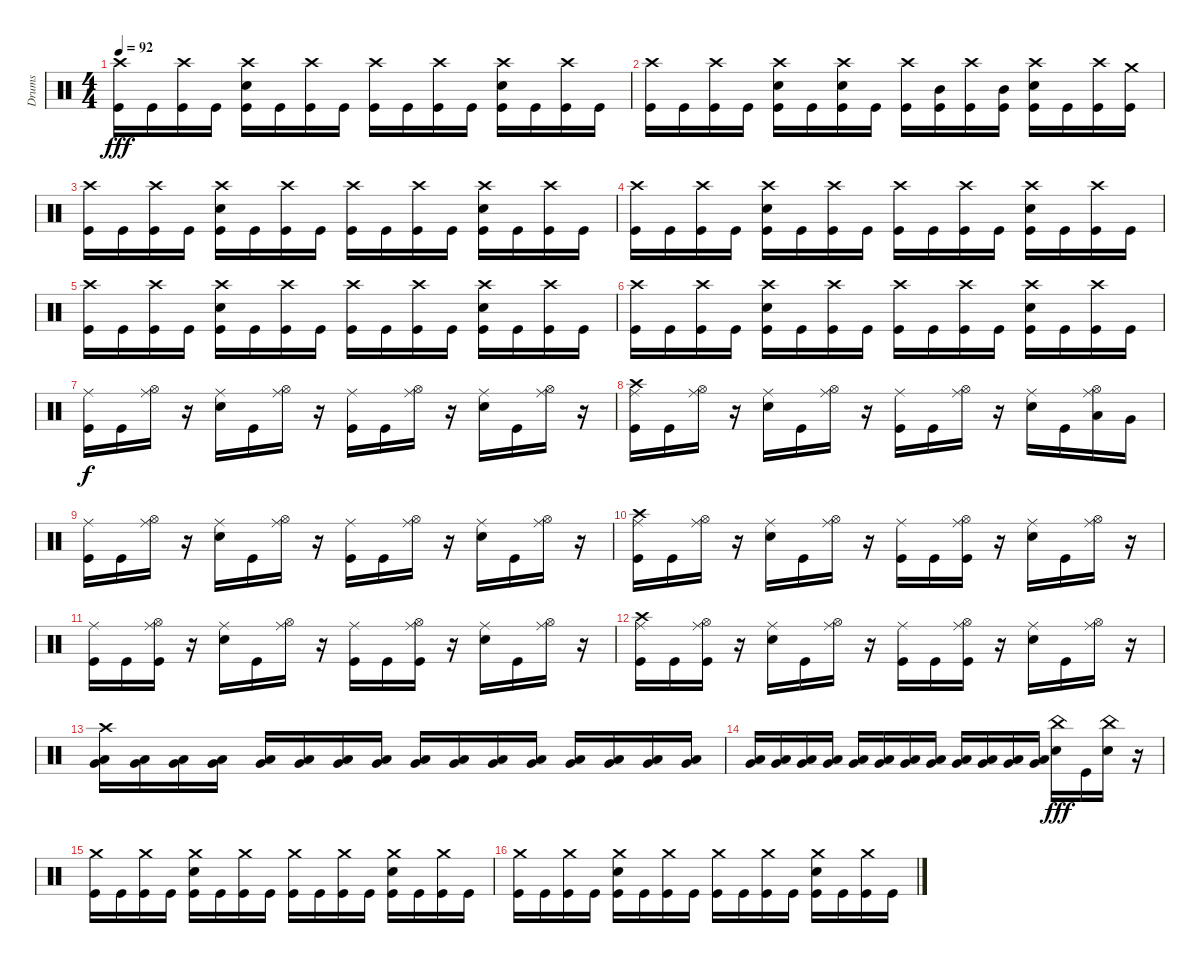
\track ("Drums" "Drums") {instrument percussion}
\staff {score}
\articulation defaults
\ts (4 4)
\tempo 92
\clef neutral
\ks c
("Crash high (hit)" "Kick (hit)").16{dy fff} "Kick (hit)".16 ("Crash high (hit)" "Kick (hit)").16 "Kick (hit)".16 ("Crash high (hit)" "Snare (hit) 2" "Kick (hit)").16 "Kick (hit)".16 ("Crash high (hit)" "Kick (hit)").16 "Kick (hit)".16 ("Crash high (hit)" "Kick (hit)").16 "Kick (hit)".16 ("Crash high (hit)" "Kick (hit)").16 "Kick (hit)".16 ("Crash high (hit)" "Snare (hit) 2" "Kick (hit)").16 "Kick (hit)".16 ("Crash high (hit)" "Kick (hit)").16 "Kick (hit)".16 |
("Crash high (hit)" "Kick (hit)").16 "Kick (hit)".16 ("Crash high (hit)" "Kick (hit)").16 "Kick (hit)".16 ("Crash high (hit)" "Snare (hit) 2" "Kick (hit)").16 "Kick (hit)".16 ("Crash high (hit)" "Snare (hit) 2" "Kick (hit)").16 "Kick (hit)".16 ("Crash high (hit)" "Kick (hit)").16 ("Mid Tom (hit)" "Kick (hit)").16 ("Crash high (hit)" "Kick (hit)").16 ("Mid Tom (hit)" "Kick (hit)").16 ("Crash high (hit)" "Snare (hit) 2" "Kick (hit)").16 "Kick (hit)".16 ("Crash high (hit)" "Kick (hit)").16 ("Crash medium (hit)" "Kick (hit)").16 |
("Crash high (hit)" "Kick (hit)").16 "Kick (hit)".16 ("Crash high (hit)" "Kick (hit)").16 "Kick (hit)".16 ("Crash high (hit)" "Snare (hit) 2" "Kick (hit)").16 "Kick (hit)".16 ("Crash high (hit)" "Kick (hit)").16 "Kick (hit)".16 ("Crash high (hit)" "Kick (hit)").16 "Kick (hit)".16 ("Crash high (hit)" "Kick (hit)").16 "Kick (hit)".16 ("Crash high (hit)" "Snare (hit) 2" "Kick (hit)").16 "Kick (hit)".16 ("Crash high (hit)" "Kick (hit)").16 "Kick (hit)".16 |
("Crash high (hit)" "Kick (hit)").16 "Kick (hit)".16 ("Crash high (hit)" "Kick (hit)").16 "Kick (hit)".16 ("Crash high (hit)" "Snare (hit) 2" "Kick (hit)").16 "Kick (hit)".16 ("Crash high (hit)" "Kick (hit)").16 "Kick (hit)".16 ("Crash high (hit)" "Kick (hit)").16 "Kick (hit)".16 ("Crash high (hit)" "Kick (hit)").16 "Kick (hit)".16 ("Crash high (hit)" "Snare (hit) 2" "Kick (hit)").16 "Kick (hit)".16 ("Crash high (hit)" "Kick (hit)").16 "Kick (hit)".16 |
("Crash high (hit)" "Kick (hit)").16 "Kick (hit)".16 ("Crash high (hit)" "Kick (hit)").16 "Kick (hit)".16 ("Crash high (hit)" "Snare (hit) 2" "Kick (hit)").16 "Kick (hit)".16 ("Crash high (hit)" "Kick (hit)").16 "Kick (hit)".16 ("Crash high (hit)" "Kick (hit)").16 "Kick (hit)".16 ("Crash high (hit)" "Kick (hit)").16 "Kick (hit)".16 ("Crash high (hit)" "Snare (hit) 2" "Kick (hit)").16 "Kick (hit)".16 ("Crash high (hit)" "Kick (hit)").16 "Kick (hit)".16 |
("Crash high (hit)" "Kick (hit)").16 "Kick (hit)".16 ("Crash high (hit)" "Kick (hit)").16 "Kick (hit)".16 ("Crash high (hit)" "Snare (hit) 2" "Kick (hit)").16 "Kick (hit)".16 ("Crash high (hit)" "Kick (hit)").16 "Kick (hit)".16 ("Crash high (hit)" "Kick (hit)").16 "Kick (hit)".16 ("Crash high (hit)" "Kick (hit)").16 "Kick (hit)".16 ("Crash high (hit)" "Snare (hit) 2" "Kick (hit)").16 "Kick (hit)".16 ("Crash high (hit)" "Kick (hit)").16 "Kick (hit)".16 |
("Ride (middle)" "Kick (hit)").16{dy f} "Kick (hit)".16 ("Hi-Hat (open)" "Ride (middle)").16 r.16 ("Snare (hit) 2" "Ride (middle)").16 "Kick (hit)".16 ("Hi-Hat (open)" "Ride (middle)").16 r.16 ("Ride (middle)" "Kick (hit)").16 "Kick (hit)".16 ("Hi-Hat (open)" "Ride (middle)").16 r.16 ("Ride (middle)" "Snare (hit) 2").16 "Kick (hit)".16 ("Hi-Hat (open)" "Ride (middle)").16 r.16 |
("Crash high (hit)" "Ride (middle)" "Kick (hit)").16 "Kick (hit)".16 ("Hi-Hat (open)" "Ride (middle)").16 r.16 ("Snare (hit) 2" "Ride (middle)").16 "Kick (hit)".16 ("Hi-Hat (open)" "Ride (middle)").16 r.16 ("Ride (middle)" "Kick (hit)").16 "Kick (hit)".16 ("Hi-Hat (open)" "Ride (middle)").16 r.16 ("Ride (middle)" "Snare (hit) 2").16 "Kick (hit)".16 ("Hi-Hat (open)" "Ride (middle)" "Low Tom (hit)").16 "Very Low Tom (hit)".16 |
("Ride (middle)" "Kick (hit)").16 "Kick (hit)".16 ("Hi-Hat (open)" "Ride (middle)").16 r.16 ("Snare (hit) 2" "Ride (middle)").16 "Kick (hit)".16 ("Hi-Hat (open)" "Ride (middle)").16 r.16 ("Ride (middle)" "Kick (hit)").16 "Kick (hit)".16 ("Hi-Hat (open)" "Ride (middle)").16 r.16 ("Ride (middle)" "Snare (hit) 2").16 "Kick (hit)".16 ("Hi-Hat (open)" "Ride (middle)").16 r.16 |
("Crash high (hit)" "Ride (middle)" "Kick (hit)").16 "Kick (hit)".16 ("Hi-Hat (open)" "Ride (middle)").16 r.16 ("Snare (hit) 2" "Ride (middle)").16 "Kick (hit)".16 ("Hi-Hat (open)" "Ride (middle)").16 r.16 ("Ride (middle)" "Kick (hit)").16 "Kick (hit)".16 ("Hi-Hat (open)" "Ride (middle)" "Kick (hit)").16 r.16 ("Ride (middle)" "Snare (hit) 2").16 "Kick (hit)".16 ("Hi-Hat (open)" "Ride (middle)").16 r.16 |
("Ride (middle)" "Kick (hit)").16 "Kick (hit)".16 ("Hi-Hat (open)" "Ride (middle)" "Kick (hit)").16 r.16 ("Snare (hit) 2" "Ride (middle)").16 "Kick (hit)".16 ("Hi-Hat (open)" "Ride (middle)").16 r.16 ("Ride (middle)" "Kick (hit)").16 "Kick (hit)".16 ("Hi-Hat (open)" "Ride (middle)" "Kick (hit)").16 r.16 ("Ride (middle)" "Snare (hit) 2").16 "Kick (hit)".16 ("Hi-Hat (open)" "Ride (middle)").16 r.16 |
("Crash high (hit)" "Ride (middle)" "Kick (hit)").16 "Kick (hit)".16 ("Hi-Hat (open)" "Ride (middle)" "Kick (hit)").16 r.16 ("Snare (hit) 2" "Ride (middle)").16 "Kick (hit)".16 ("Hi-Hat (open)" "Ride (middle)").16 r.16 ("Ride (middle)" "Kick (hit)").16 "Kick (hit)".16 ("Hi-Hat (open)" "Ride (middle)" "Kick (hit)").16 r.16 ("Ride (middle)" "Snare (hit) 2").16 "Kick (hit)".16 ("Hi-Hat (open)" "Ride (middle)").16 r.16 |
("Crash high (hit)" "Very Low Tom (hit)" "Low Floor Tom (hit)").16 ("Very Low Tom (hit)" "Low Floor Tom (hit)").16 ("Very Low Tom (hit)" "Low Floor Tom (hit)").16 ("Very Low Tom (hit)" "Low Floor Tom (hit)").16 ("Very Low Tom (hit)" "Low Floor Tom (hit)").16 ("Very Low Tom (hit)" "Low Floor Tom (hit)").16 ("Very Low Tom (hit)" "Low Floor Tom (hit)").16 ("Very Low Tom (hit)" "Low Floor Tom (hit)").16 ("Very Low Tom (hit)" "Low Floor Tom (hit)").16 ("Very Low Tom (hit)" "Low Floor Tom (hit)").16 ("Very Low Tom (hit)" "Low Floor Tom (hit)").16 ("Very Low Tom (hit)" "Low Floor Tom (hit)").16 ("Very Low Tom (hit)" "Low Floor Tom (hit)").16 ("Very Low Tom (hit)" "Low Floor Tom (hit)").16 ("Very Low Tom (hit)" "Low Floor Tom (hit)").16 ("Very Low Tom (hit)" "Low Floor Tom (hit)").16 |
("Very Low Tom (hit)" "Low Floor Tom (hit)").16 ("Very Low Tom (hit)" "Low Floor Tom (hit)").16 ("Very Low Tom (hit)" "Low Floor Tom (hit)").16 ("Very Low Tom (hit)" "Low Floor Tom (hit)").16 ("Very Low Tom (hit)" "Low Floor Tom (hit)").16 ("Very Low Tom (hit)" "Low Floor Tom (hit)").16 ("Very Low Tom (hit)" "Low Floor Tom (hit)").16 ("Very Low Tom (hit)" "Low Floor Tom (hit)").16 ("Very Low Tom (hit)" "Low Floor Tom (hit)").16 ("Very Low Tom (hit)" "Low Floor Tom (hit)").16 ("Very Low Tom (hit)" "Low Floor Tom (hit)").16 ("Very Low Tom (hit)" "Low Floor Tom (hit)").16 ("China (hit)" "Snare (hit) 2").16{dy fff} "Kick (hit)".16 ("China (hit)" "Snare (hit) 2").16 r.16 |
("Crash medium (hit)" "Kick (hit)").16 "Kick (hit)".16 ("Crash medium (hit)" "Kick (hit)").16 "Kick (hit)".16 ("Crash medium (hit)" "Snare (hit) 2" "Kick (hit)").16 "Kick (hit)".16 ("Crash medium (hit)" "Kick (hit)").16 "Kick (hit)".16 ("Crash medium (hit)" "Kick (hit)").16 "Kick (hit)".16 ("Crash medium (hit)" "Kick (hit)").16 "Kick (hit)".16 ("Crash medium (hit)" "Snare (hit) 2" "Kick (hit)").16 "Kick (hit)".16 ("Crash medium (hit)" "Kick (hit)").16 "Kick (hit)".16 |
("Crash medium (hit)" "Kick (hit)").16 "Kick (hit)".16 ("Crash medium (hit)" "Kick (hit)").16 "Kick (hit)".16 ("Crash medium (hit)" "Snare (hit) 2" "Kick (hit)").16 "Kick (hit)".16 ("Crash medium (hit)" "Kick (hit)").16 "Kick (hit)".16 ("Crash medium (hit)" "Kick (hit)").16 "Kick (hit)".16 ("Crash medium (hit)" "Kick (hit)").16 "Kick (hit)".16 ("Crash medium (hit)" "Snare (hit) 2" "Kick (hit)").16 "Kick (hit)".16 ("Crash medium (hit)" "Kick (hit)").16 "Kick (hit)".16
